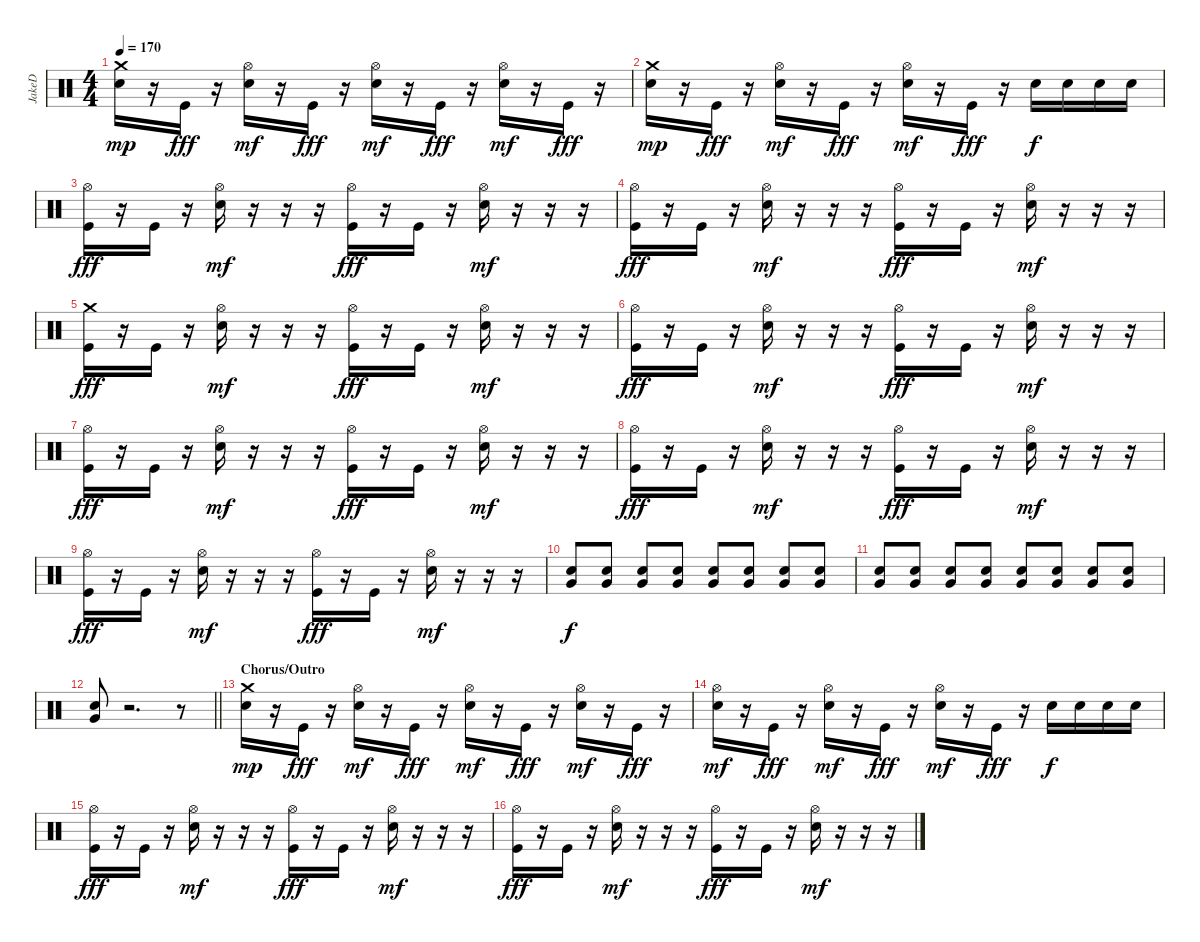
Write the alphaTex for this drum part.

\track ("JakeD" "JakeD") {instrument percussion}
\staff {score}
\articulation defaults
\ts (4 4)
\tempo 170
\clef neutral
\ks c
("Crash medium (hit)" "Electric Snare (hit)").16{dy mp} r.16 "Kick (hit)".16{dy fff} r.16 ("Hi-Hat (open)" "Electric Snare (hit)").16{dy mf} r.16 "Kick (hit)".16{dy fff} r.16 ("Hi-Hat (open)" "Electric Snare (hit)").16{dy mf} r.16 "Kick (hit)".16{dy fff} r.16 ("Hi-Hat (open)" "Electric Snare (hit)").16{dy mf} r.16 "Kick (hit)".16{dy fff} r.16 |
("Crash medium (hit)" "Electric Snare (hit)").16{dy mp} r.16 "Kick (hit)".16{dy fff} r.16 ("Hi-Hat (open)" "Electric Snare (hit)").16{dy mf} r.16 "Kick (hit)".16{dy fff} r.16 ("Hi-Hat (open)" "Electric Snare (hit)").16{dy mf} r.16 "Kick (hit)".16{dy fff} r.16 "Electric Snare (hit)".16{dy f} "Electric Snare (hit)".16 "Electric Snare (hit)".16 "Electric Snare (hit)".16 |
("Hi-Hat (open)" "Kick (hit)").16{dy fff} r.16 "Kick (hit)".16 r.16 ("Hi-Hat (open)" "Electric Snare (hit)").16{dy mf} r.16 r.16 r.16 ("Hi-Hat (open)" "Kick (hit)").16{dy fff} r.16 "Kick (hit)".16 r.16 ("Hi-Hat (open)" "Electric Snare (hit)").16{dy mf} r.16 r.16 r.16 |
("Hi-Hat (open)" "Kick (hit)").16{dy fff} r.16 "Kick (hit)".16 r.16 ("Hi-Hat (open)" "Electric Snare (hit)").16{dy mf} r.16 r.16 r.16 ("Hi-Hat (open)" "Kick (hit)").16{dy fff} r.16 "Kick (hit)".16 r.16 ("Hi-Hat (open)" "Electric Snare (hit)").16{dy mf} r.16 r.16 r.16 |
("Crash medium (hit)" "Kick (hit)").16{dy fff} r.16 "Kick (hit)".16 r.16 ("Hi-Hat (open)" "Electric Snare (hit)").16{dy mf} r.16 r.16 r.16 ("Hi-Hat (open)" "Kick (hit)").16{dy fff} r.16 "Kick (hit)".16 r.16 ("Hi-Hat (open)" "Electric Snare (hit)").16{dy mf} r.16 r.16 r.16 |
("Hi-Hat (open)" "Kick (hit)").16{dy fff} r.16 "Kick (hit)".16 r.16 ("Hi-Hat (open)" "Electric Snare (hit)").16{dy mf} r.16 r.16 r.16 ("Hi-Hat (open)" "Kick (hit)").16{dy fff} r.16 "Kick (hit)".16 r.16 ("Hi-Hat (open)" "Electric Snare (hit)").16{dy mf} r.16 r.16 r.16 |
("Hi-Hat (open)" "Kick (hit)").16{dy fff} r.16 "Kick (hit)".16 r.16 ("Hi-Hat (open)" "Electric Snare (hit)").16{dy mf} r.16 r.16 r.16 ("Hi-Hat (open)" "Kick (hit)").16{dy fff} r.16 "Kick (hit)".16 r.16 ("Hi-Hat (open)" "Electric Snare (hit)").16{dy mf} r.16 r.16 r.16 |
("Hi-Hat (open)" "Kick (hit)").16{dy fff} r.16 "Kick (hit)".16 r.16 ("Hi-Hat (open)" "Electric Snare (hit)").16{dy mf} r.16 r.16 r.16 ("Hi-Hat (open)" "Kick (hit)").16{dy fff} r.16 "Kick (hit)".16 r.16 ("Hi-Hat (open)" "Electric Snare (hit)").16{dy mf} r.16 r.16 r.16 |
("Hi-Hat (open)" "Kick (hit)").16{dy fff} r.16 "Kick (hit)".16 r.16 ("Hi-Hat (open)" "Electric Snare (hit)").16{dy mf} r.16 r.16 r.16 ("Hi-Hat (open)" "Kick (hit)").16{dy fff} r.16 "Kick (hit)".16 r.16 ("Hi-Hat (open)" "Electric Snare (hit)").16{dy mf} r.16 r.16 r.16 |
("Very Low Tom (hit)" "Electric Snare (hit)").8{dy f} ("Very Low Tom (hit)" "Electric Snare (hit)").8 ("Very Low Tom (hit)" "Electric Snare (hit)").8 ("Very Low Tom (hit)" "Electric Snare (hit)").8 ("Very Low Tom (hit)" "Electric Snare (hit)").8 ("Very Low Tom (hit)" "Electric Snare (hit)").8 ("Very Low Tom (hit)" "Electric Snare (hit)").8 ("Very Low Tom (hit)" "Electric Snare (hit)").8 |
("Very Low Tom (hit)" "Electric Snare (hit)").8 ("Very Low Tom (hit)" "Electric Snare (hit)").8 ("Very Low Tom (hit)" "Electric Snare (hit)").8 ("Very Low Tom (hit)" "Electric Snare (hit)").8 ("Very Low Tom (hit)" "Electric Snare (hit)").8 ("Very Low Tom (hit)" "Electric Snare (hit)").8 ("Very Low Tom (hit)" "Electric Snare (hit)").8 ("Very Low Tom (hit)" "Electric Snare (hit)").8 |
\barLineRight lightlight
("Very Low Tom (hit)" "Electric Snare (hit)").8 r.2{d} r.8 |
\section ("" "Chorus/Outro")
("Crash medium (hit)" "Electric Snare (hit)").16{dy mp} r.16 "Kick (hit)".16{dy fff} r.16 ("Hi-Hat (open)" "Electric Snare (hit)").16{dy mf} r.16 "Kick (hit)".16{dy fff} r.16 ("Hi-Hat (open)" "Electric Snare (hit)").16{dy mf} r.16 "Kick (hit)".16{dy fff} r.16 ("Hi-Hat (open)" "Electric Snare (hit)").16{dy mf} r.16 "Kick (hit)".16{dy fff} r.16 |
("Hi-Hat (open)" "Electric Snare (hit)").16{dy mf} r.16 "Kick (hit)".16{dy fff} r.16 ("Hi-Hat (open)" "Electric Snare (hit)").16{dy mf} r.16 "Kick (hit)".16{dy fff} r.16 ("Hi-Hat (open)" "Electric Snare (hit)").16{dy mf} r.16 "Kick (hit)".16{dy fff} r.16 "Electric Snare (hit)".16{dy f} "Electric Snare (hit)".16 "Electric Snare (hit)".16 "Electric Snare (hit)".16 |
("Hi-Hat (open)" "Kick (hit)").16{dy fff} r.16 "Kick (hit)".16 r.16 ("Hi-Hat (open)" "Electric Snare (hit)").16{dy mf} r.16 r.16 r.16 ("Hi-Hat (open)" "Kick (hit)").16{dy fff} r.16 "Kick (hit)".16 r.16 ("Hi-Hat (open)" "Electric Snare (hit)").16{dy mf} r.16 r.16 r.16 |
("Hi-Hat (open)" "Kick (hit)").16{dy fff} r.16 "Kick (hit)".16 r.16 ("Hi-Hat (open)" "Electric Snare (hit)").16{dy mf} r.16 r.16 r.16 ("Hi-Hat (open)" "Kick (hit)").16{dy fff} r.16 "Kick (hit)".16 r.16 ("Hi-Hat (open)" "Electric Snare (hit)").16{dy mf} r.16 r.16 r.16
